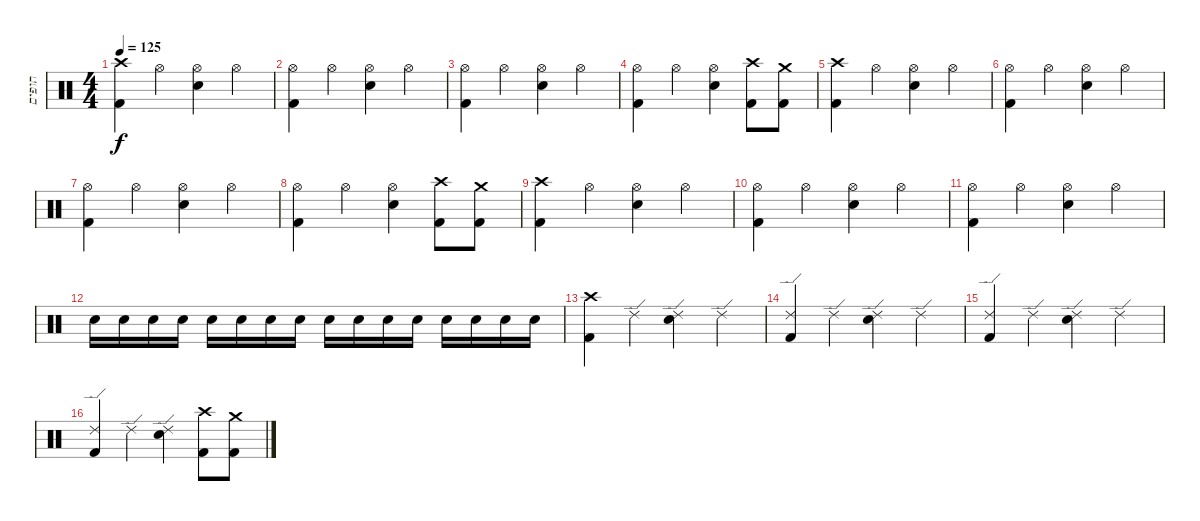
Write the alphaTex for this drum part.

\track ("תופים" "תופים") {instrument percussion}
\staff {score}
\articulation defaults
\ts (4 4)
\tempo 125
\clef neutral
\ks c
("Crash high (hit)" "Kick (hit) 2").4{dy f} "Hi-Hat (open)".4 ("Hi-Hat (open)" "Snare (hit) 2").4 "Hi-Hat (open)".4 |
("Hi-Hat (open)" "Kick (hit) 2").4 "Hi-Hat (open)".4 ("Hi-Hat (open)" "Snare (hit) 2").4 "Hi-Hat (open)".4 |
("Hi-Hat (open)" "Kick (hit) 2").4 "Hi-Hat (open)".4 ("Hi-Hat (open)" "Snare (hit) 2").4 "Hi-Hat (open)".4 |
("Hi-Hat (open)" "Kick (hit) 2").4 "Hi-Hat (open)".4 ("Hi-Hat (open)" "Snare (hit) 2").4 ("Crash high (hit)" "Kick (hit) 2").8 ("Crash medium (hit)" "Kick (hit) 2").8 |
("Crash high (hit)" "Kick (hit) 2").4 "Hi-Hat (open)".4 ("Hi-Hat (open)" "Snare (hit) 2").4 "Hi-Hat (open)".4 |
("Hi-Hat (open)" "Kick (hit) 2").4 "Hi-Hat (open)".4 ("Hi-Hat (open)" "Snare (hit) 2").4 "Hi-Hat (open)".4 |
("Hi-Hat (open)" "Kick (hit) 2").4 "Hi-Hat (open)".4 ("Hi-Hat (open)" "Snare (hit) 2").4 "Hi-Hat (open)".4 |
("Hi-Hat (open)" "Kick (hit) 2").4 "Hi-Hat (open)".4 ("Hi-Hat (open)" "Snare (hit) 2").4 ("Crash high (hit)" "Kick (hit) 2").8 ("Crash medium (hit)" "Kick (hit) 2").8 |
("Crash high (hit)" "Kick (hit) 2").4 "Hi-Hat (open)".4 ("Hi-Hat (open)" "Snare (hit) 2").4 "Hi-Hat (open)".4 |
("Hi-Hat (open)" "Kick (hit) 2").4 "Hi-Hat (open)".4 ("Hi-Hat (open)" "Snare (hit) 2").4 "Hi-Hat (open)".4 |
("Hi-Hat (open)" "Kick (hit) 2").4 "Hi-Hat (open)".4 ("Hi-Hat (open)" "Snare (hit) 2").4 "Hi-Hat (open)".4 |
"Snare (hit) 2".16 "Snare (hit) 2".16 "Snare (hit) 2".16 "Snare (hit) 2".16 "Snare (hit) 2".16 "Snare (hit) 2".16 "Snare (hit) 2".16 "Snare (hit) 2".16 "Snare (hit) 2".16 "Snare (hit) 2".16 "Snare (hit) 2".16 "Snare (hit) 2".16 "Snare (hit) 2".16 "Snare (hit) 2".16 "Snare (hit) 2".16 "Snare (hit) 2".16 |
("Crash high (hit)" "Kick (hit) 2").4 "Ride (edge) 2".4 ("Ride (edge) 2" "Snare (hit) 2").4 "Ride (edge) 2".4 |
("Ride (edge) 2" "Kick (hit) 2").4 "Ride (edge) 2".4 ("Ride (edge) 2" "Snare (hit) 2").4 "Ride (edge) 2".4 |
("Ride (edge) 2" "Kick (hit) 2").4 "Ride (edge) 2".4 ("Ride (edge) 2" "Snare (hit) 2").4 "Ride (edge) 2".4 |
("Ride (edge) 2" "Kick (hit) 2").4 "Ride (edge) 2".4 ("Ride (edge) 2" "Snare (hit) 2").4 ("Crash high (hit)" "Kick (hit) 2").8 ("Crash medium (hit)" "Kick (hit) 2").8
